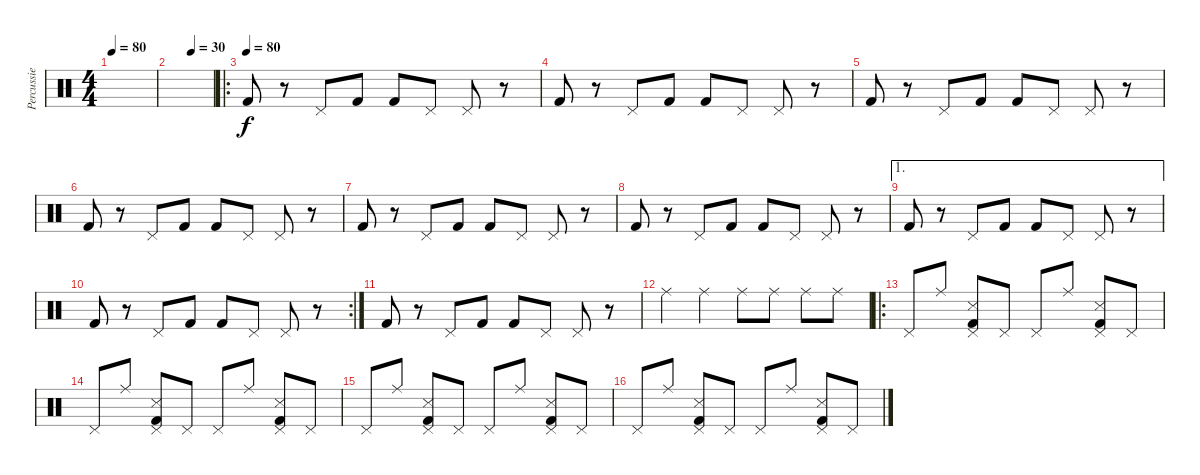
\track ("Percussie" "Percussie") {instrument percussion}
\staff {score}
\articulation defaults
\ts (4 4)
\tempo 80
\clef neutral
\ks c
|
\tempo (30 0.5)
|
\ro
\tempo (80)
"Kick (hit) 2".8 r.8 "Pedal Hi-Hat (hit)".8 "Kick (hit) 2".8 "Kick (hit) 2".8 "Pedal Hi-Hat (hit)".8 "Pedal Hi-Hat (hit)".8 r.8 |
"Kick (hit) 2".8 r.8 "Pedal Hi-Hat (hit)".8 "Kick (hit) 2".8 "Kick (hit) 2".8 "Pedal Hi-Hat (hit)".8 "Pedal Hi-Hat (hit)".8 r.8 |
"Kick (hit) 2".8 r.8 "Pedal Hi-Hat (hit)".8 "Kick (hit) 2".8 "Kick (hit) 2".8 "Pedal Hi-Hat (hit)".8 "Pedal Hi-Hat (hit)".8 r.8 |
"Kick (hit) 2".8 r.8 "Pedal Hi-Hat (hit)".8 "Kick (hit) 2".8 "Kick (hit) 2".8 "Pedal Hi-Hat (hit)".8 "Pedal Hi-Hat (hit)".8 r.8 |
"Kick (hit) 2".8 r.8 "Pedal Hi-Hat (hit)".8 "Kick (hit) 2".8 "Kick (hit) 2".8 "Pedal Hi-Hat (hit)".8 "Pedal Hi-Hat (hit)".8 r.8 |
"Kick (hit) 2".8 r.8 "Pedal Hi-Hat (hit)".8 "Kick (hit) 2".8 "Kick (hit) 2".8 "Pedal Hi-Hat (hit)".8 "Pedal Hi-Hat (hit)".8 r.8 |
\ae 1 "Kick (hit) 2".8
r.8 "Pedal Hi-Hat (hit)".8 "Kick (hit) 2".8 "Kick (hit) 2".8 "Pedal Hi-Hat (hit)".8 "Pedal Hi-Hat (hit)".8 r.8 |
\rc 2 "Kick (hit) 2".8
r.8 "Pedal Hi-Hat (hit)".8 "Kick (hit) 2".8 "Kick (hit) 2".8 "Pedal Hi-Hat (hit)".8 "Pedal Hi-Hat (hit)".8 r.8 |
"Kick (hit) 2".8 r.8 "Pedal Hi-Hat (hit)".8 "Kick (hit) 2".8 "Kick (hit) 2".8 "Pedal Hi-Hat (hit)".8 "Pedal Hi-Hat (hit)".8 r.8 |
"Ride (middle)".4 "Ride (middle)".4 "Ride (middle)".8 "Ride (middle)".8 "Ride (middle)".8 "Ride (middle)".8 |
\ro "Pedal Hi-Hat (hit)".8 "Ride (middle)".8
("Snare (side stick) 3" "Kick (hit) 2" "Pedal Hi-Hat (hit)").8 "Pedal Hi-Hat (hit)".8 "Pedal Hi-Hat (hit)".8 "Ride (middle)".8 ("Snare (side stick) 3" "Kick (hit) 2" "Pedal Hi-Hat (hit)").8 "Pedal Hi-Hat (hit)".8 |
"Pedal Hi-Hat (hit)".8 "Ride (middle)".8 ("Snare (side stick) 3" "Kick (hit) 2" "Pedal Hi-Hat (hit)").8 "Pedal Hi-Hat (hit)".8 "Pedal Hi-Hat (hit)".8 "Ride (middle)".8 ("Snare (side stick) 3" "Kick (hit) 2" "Pedal Hi-Hat (hit)").8 "Pedal Hi-Hat (hit)".8 |
"Pedal Hi-Hat (hit)".8 "Ride (middle)".8 ("Snare (side stick) 3" "Kick (hit) 2" "Pedal Hi-Hat (hit)").8 "Pedal Hi-Hat (hit)".8 "Pedal Hi-Hat (hit)".8 "Ride (middle)".8 ("Snare (side stick) 3" "Kick (hit) 2" "Pedal Hi-Hat (hit)").8 "Pedal Hi-Hat (hit)".8 |
"Pedal Hi-Hat (hit)".8 "Ride (middle)".8 ("Snare (side stick) 3" "Kick (hit) 2" "Pedal Hi-Hat (hit)").8 "Pedal Hi-Hat (hit)".8 "Pedal Hi-Hat (hit)".8 "Ride (middle)".8 ("Snare (side stick) 3" "Kick (hit) 2" "Pedal Hi-Hat (hit)").8 "Pedal Hi-Hat (hit)".8
